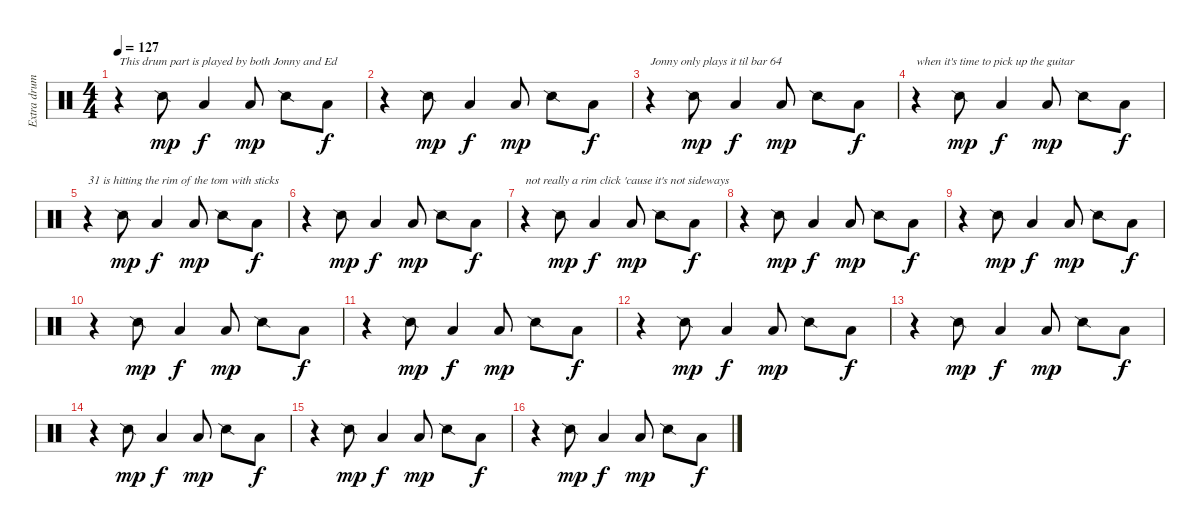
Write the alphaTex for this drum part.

\track ("Extra drums" "Extra drum") {instrument percussion}
\staff {score}
\articulation defaults
\ts (4 4)
\tempo 127
\clef neutral
\ks c
r.4{txt "This drum part is played by both Jonny and Ed" dy mp} "Snare (side stick) 2".8 "Low Tom (hit)".4{dy f} "Low Tom (hit)".8{dy mp} "Snare (side stick) 2".8 "Low Tom (hit)".8{dy f} |
r.4 "Snare (side stick) 2".8{dy mp} "Low Tom (hit)".4{dy f} "Low Tom (hit)".8{dy mp} "Snare (side stick) 2".8 "Low Tom (hit)".8{dy f} |
r.4{txt "Jonny only plays it til bar 64"} "Snare (side stick) 2".8{dy mp} "Low Tom (hit)".4{dy f} "Low Tom (hit)".8{dy mp} "Snare (side stick) 2".8 "Low Tom (hit)".8{dy f} |
r.4{txt "when it's time to pick up the guitar"} "Snare (side stick) 2".8{dy mp} "Low Tom (hit)".4{dy f} "Low Tom (hit)".8{dy mp} "Snare (side stick) 2".8 "Low Tom (hit)".8{dy f} |
r.4{txt "31 is hitting the rim of the tom with sticks"} "Snare (side stick) 2".8{dy mp} "Low Tom (hit)".4{dy f} "Low Tom (hit)".8{dy mp} "Snare (side stick) 2".8 "Low Tom (hit)".8{dy f} |
r.4 "Snare (side stick) 2".8{dy mp} "Low Tom (hit)".4{dy f} "Low Tom (hit)".8{dy mp} "Snare (side stick) 2".8 "Low Tom (hit)".8{dy f} |
r.4{txt "not really a rim click 'cause it's not sideways"} "Snare (side stick) 2".8{dy mp} "Low Tom (hit)".4{dy f} "Low Tom (hit)".8{dy mp} "Snare (side stick) 2".8 "Low Tom (hit)".8{dy f} |
r.4 "Snare (side stick) 2".8{dy mp} "Low Tom (hit)".4{dy f} "Low Tom (hit)".8{dy mp} "Snare (side stick) 2".8 "Low Tom (hit)".8{dy f} |
r.4 "Snare (side stick) 2".8{dy mp} "Low Tom (hit)".4{dy f} "Low Tom (hit)".8{dy mp} "Snare (side stick) 2".8 "Low Tom (hit)".8{dy f} |
r.4 "Snare (side stick) 2".8{dy mp} "Low Tom (hit)".4{dy f} "Low Tom (hit)".8{dy mp} "Snare (side stick) 2".8 "Low Tom (hit)".8{dy f} |
r.4 "Snare (side stick) 2".8{dy mp} "Low Tom (hit)".4{dy f} "Low Tom (hit)".8{dy mp} "Snare (side stick) 2".8 "Low Tom (hit)".8{dy f} |
r.4 "Snare (side stick) 2".8{dy mp} "Low Tom (hit)".4{dy f} "Low Tom (hit)".8{dy mp} "Snare (side stick) 2".8 "Low Tom (hit)".8{dy f} |
r.4 "Snare (side stick) 2".8{dy mp} "Low Tom (hit)".4{dy f} "Low Tom (hit)".8{dy mp} "Snare (side stick) 2".8 "Low Tom (hit)".8{dy f} |
r.4 "Snare (side stick) 2".8{dy mp} "Low Tom (hit)".4{dy f} "Low Tom (hit)".8{dy mp} "Snare (side stick) 2".8 "Low Tom (hit)".8{dy f} |
r.4 "Snare (side stick) 2".8{dy mp} "Low Tom (hit)".4{dy f} "Low Tom (hit)".8{dy mp} "Snare (side stick) 2".8 "Low Tom (hit)".8{dy f} |
r.4 "Snare (side stick) 2".8{dy mp} "Low Tom (hit)".4{dy f} "Low Tom (hit)".8{dy mp} "Snare (side stick) 2".8 "Low Tom (hit)".8{dy f}
